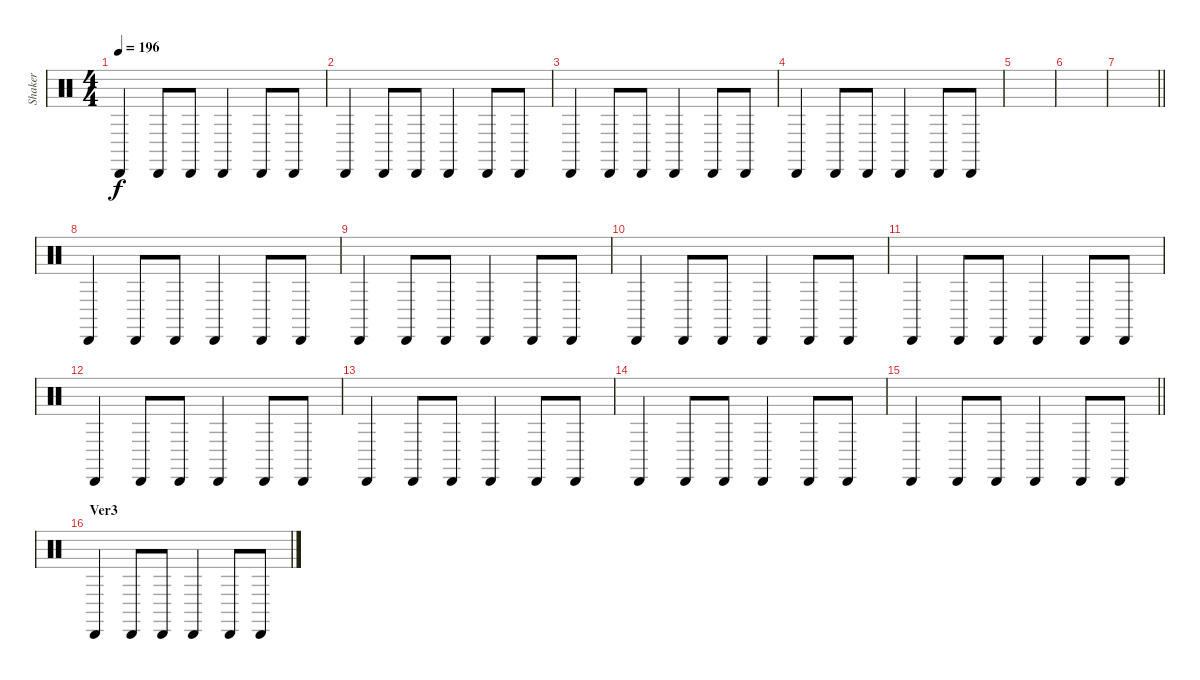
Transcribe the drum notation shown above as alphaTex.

\track ("Shaker" "Shaker") {instrument percussion bank 126}
\staff {score}
\articulation defaults
\ts (4 4)
\tempo 196
\clef neutral
\ks c "Cabasa (hit)".4{dy f} "Cabasa (hit)".8 "Cabasa (hit)".8 "Cabasa (hit)".4 "Cabasa (hit)".8 "Cabasa (hit)".8
|
"Cabasa (hit)".4 "Cabasa (hit)".8 "Cabasa (hit)".8 "Cabasa (hit)".4 "Cabasa (hit)".8 "Cabasa (hit)".8 |
"Cabasa (hit)".4 "Cabasa (hit)".8 "Cabasa (hit)".8 "Cabasa (hit)".4 "Cabasa (hit)".8 "Cabasa (hit)".8 |
"Cabasa (hit)".4 "Cabasa (hit)".8 "Cabasa (hit)".8 "Cabasa (hit)".4 "Cabasa (hit)".8 "Cabasa (hit)".8 |
|
|
\barLineRight lightlight
|
\section ("" "")
"Cabasa (hit)".4 "Cabasa (hit)".8 "Cabasa (hit)".8 "Cabasa (hit)".4 "Cabasa (hit)".8 "Cabasa (hit)".8 |
"Cabasa (hit)".4 "Cabasa (hit)".8 "Cabasa (hit)".8 "Cabasa (hit)".4 "Cabasa (hit)".8 "Cabasa (hit)".8 |
"Cabasa (hit)".4 "Cabasa (hit)".8 "Cabasa (hit)".8 "Cabasa (hit)".4 "Cabasa (hit)".8 "Cabasa (hit)".8 |
"Cabasa (hit)".4 "Cabasa (hit)".8 "Cabasa (hit)".8 "Cabasa (hit)".4 "Cabasa (hit)".8 "Cabasa (hit)".8 |
"Cabasa (hit)".4 "Cabasa (hit)".8 "Cabasa (hit)".8 "Cabasa (hit)".4 "Cabasa (hit)".8 "Cabasa (hit)".8 |
"Cabasa (hit)".4 "Cabasa (hit)".8 "Cabasa (hit)".8 "Cabasa (hit)".4 "Cabasa (hit)".8 "Cabasa (hit)".8 |
"Cabasa (hit)".4 "Cabasa (hit)".8 "Cabasa (hit)".8 "Cabasa (hit)".4 "Cabasa (hit)".8 "Cabasa (hit)".8 |
\barLineRight lightlight "Cabasa (hit)".4 "Cabasa (hit)".8 "Cabasa (hit)".8 "Cabasa (hit)".4 "Cabasa (hit)".8 "Cabasa (hit)".8
|
\section ("" "Ver3")
"Cabasa (hit)".4 "Cabasa (hit)".8 "Cabasa (hit)".8 "Cabasa (hit)".4 "Cabasa (hit)".8 "Cabasa (hit)".8
